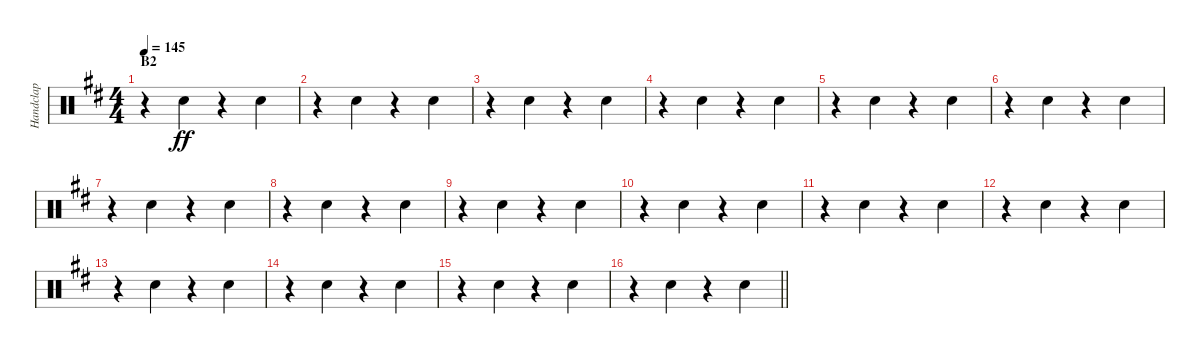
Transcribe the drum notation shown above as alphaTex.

\track ("Handclap" "Handclap") {instrument percussion}
\staff {score}
\articulation defaults
\ts (4 4)
\section ("" "B2")
\tempo 145
\clef neutral
\ks d
r.4{dy ff} "Hand Clap (hit)".4 r.4 "Hand Clap (hit)".4 |
r.4 "Hand Clap (hit)".4 r.4 "Hand Clap (hit)".4 |
r.4 "Hand Clap (hit)".4 r.4 "Hand Clap (hit)".4 |
r.4 "Hand Clap (hit)".4 r.4 "Hand Clap (hit)".4 |
r.4 "Hand Clap (hit)".4 r.4 "Hand Clap (hit)".4 |
r.4 "Hand Clap (hit)".4 r.4 "Hand Clap (hit)".4 |
r.4 "Hand Clap (hit)".4 r.4 "Hand Clap (hit)".4 |
r.4 "Hand Clap (hit)".4 r.4 "Hand Clap (hit)".4 |
r.4 "Hand Clap (hit)".4 r.4 "Hand Clap (hit)".4 |
r.4 "Hand Clap (hit)".4 r.4 "Hand Clap (hit)".4 |
r.4 "Hand Clap (hit)".4 r.4 "Hand Clap (hit)".4 |
r.4 "Hand Clap (hit)".4 r.4 "Hand Clap (hit)".4 |
r.4 "Hand Clap (hit)".4 r.4 "Hand Clap (hit)".4 |
r.4 "Hand Clap (hit)".4 r.4 "Hand Clap (hit)".4 |
r.4 "Hand Clap (hit)".4 r.4 "Hand Clap (hit)".4 |
\barLineRight lightlight
r.4 "Hand Clap (hit)".4 r.4 "Hand Clap (hit)".4
